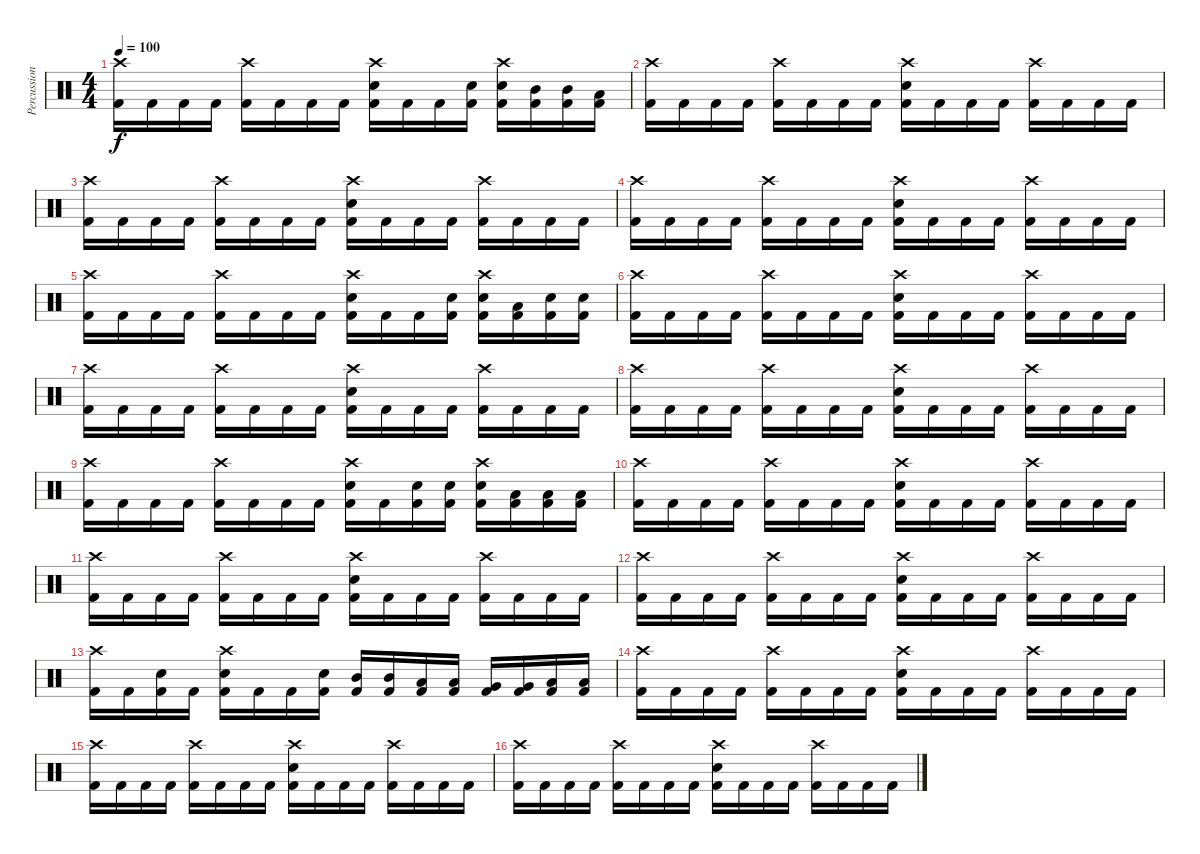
\track ("Percussion" "Percussion") {instrument percussion}
\staff {score}
\articulation defaults
\ts (4 4)
\tempo 100
\clef neutral
\ks c
("Crash high (hit)" "Kick (hit) 2").16{dy f} "Kick (hit) 2".16 "Kick (hit) 2".16 "Kick (hit) 2".16 ("Crash high (hit)" "Kick (hit) 2").16 "Kick (hit) 2".16 "Kick (hit) 2".16 "Kick (hit) 2".16 ("Crash high (hit)" "Electric Snare (hit)" "Kick (hit) 2").16 "Kick (hit) 2".16 "Kick (hit) 2".16 ("Electric Snare (hit)" "Kick (hit) 2").16 ("Crash high (hit)" "Electric Snare (hit)" "Kick (hit) 2").16 ("Mid Tom (hit)" "Kick (hit) 2").16 ("Mid Tom (hit)" "Kick (hit) 2").16 ("Low Tom (hit)" "Kick (hit) 2").16 |
("Crash high (hit)" "Kick (hit) 2").16 "Kick (hit) 2".16 "Kick (hit) 2".16 "Kick (hit) 2".16 ("Crash high (hit)" "Kick (hit) 2").16 "Kick (hit) 2".16 "Kick (hit) 2".16 "Kick (hit) 2".16 ("Crash high (hit)" "Electric Snare (hit)" "Kick (hit) 2").16 "Kick (hit) 2".16 "Kick (hit) 2".16 "Kick (hit) 2".16 ("Crash high (hit)" "Kick (hit) 2").16 "Kick (hit) 2".16 "Kick (hit) 2".16 "Kick (hit) 2".16 |
("Crash high (hit)" "Kick (hit) 2").16 "Kick (hit) 2".16 "Kick (hit) 2".16 "Kick (hit) 2".16 ("Crash high (hit)" "Kick (hit) 2").16 "Kick (hit) 2".16 "Kick (hit) 2".16 "Kick (hit) 2".16 ("Crash high (hit)" "Electric Snare (hit)" "Kick (hit) 2").16 "Kick (hit) 2".16 "Kick (hit) 2".16 "Kick (hit) 2".16 ("Crash high (hit)" "Kick (hit) 2").16 "Kick (hit) 2".16 "Kick (hit) 2".16 "Kick (hit) 2".16 |
("Crash high (hit)" "Kick (hit) 2").16 "Kick (hit) 2".16 "Kick (hit) 2".16 "Kick (hit) 2".16 ("Crash high (hit)" "Kick (hit) 2").16 "Kick (hit) 2".16 "Kick (hit) 2".16 "Kick (hit) 2".16 ("Crash high (hit)" "Electric Snare (hit)" "Kick (hit) 2").16 "Kick (hit) 2".16 "Kick (hit) 2".16 "Kick (hit) 2".16 ("Crash high (hit)" "Kick (hit) 2").16 "Kick (hit) 2".16 "Kick (hit) 2".16 "Kick (hit) 2".16 |
("Crash high (hit)" "Kick (hit) 2").16 "Kick (hit) 2".16 "Kick (hit) 2".16 "Kick (hit) 2".16 ("Crash high (hit)" "Kick (hit) 2").16 "Kick (hit) 2".16 "Kick (hit) 2".16 "Kick (hit) 2".16 ("Crash high (hit)" "Electric Snare (hit)" "Kick (hit) 2").16 "Kick (hit) 2".16 "Kick (hit) 2".16 ("Electric Snare (hit)" "Kick (hit) 2").16 ("Crash high (hit)" "Electric Snare (hit)" "Kick (hit) 2").16 ("Low Tom (hit)" "Kick (hit) 2").16 ("Electric Snare (hit)" "Kick (hit) 2").16 ("Electric Snare (hit)" "Kick (hit) 2").16 |
("Crash high (hit)" "Kick (hit) 2").16 "Kick (hit) 2".16 "Kick (hit) 2".16 "Kick (hit) 2".16 ("Crash high (hit)" "Kick (hit) 2").16 "Kick (hit) 2".16 "Kick (hit) 2".16 "Kick (hit) 2".16 ("Crash high (hit)" "Electric Snare (hit)" "Kick (hit) 2").16 "Kick (hit) 2".16 "Kick (hit) 2".16 "Kick (hit) 2".16 ("Crash high (hit)" "Kick (hit) 2").16 "Kick (hit) 2".16 "Kick (hit) 2".16 "Kick (hit) 2".16 |
("Crash high (hit)" "Kick (hit) 2").16 "Kick (hit) 2".16 "Kick (hit) 2".16 "Kick (hit) 2".16 ("Crash high (hit)" "Kick (hit) 2").16 "Kick (hit) 2".16 "Kick (hit) 2".16 "Kick (hit) 2".16 ("Crash high (hit)" "Electric Snare (hit)" "Kick (hit) 2").16 "Kick (hit) 2".16 "Kick (hit) 2".16 "Kick (hit) 2".16 ("Crash high (hit)" "Kick (hit) 2").16 "Kick (hit) 2".16 "Kick (hit) 2".16 "Kick (hit) 2".16 |
("Crash high (hit)" "Kick (hit) 2").16 "Kick (hit) 2".16 "Kick (hit) 2".16 "Kick (hit) 2".16 ("Crash high (hit)" "Kick (hit) 2").16 "Kick (hit) 2".16 "Kick (hit) 2".16 "Kick (hit) 2".16 ("Crash high (hit)" "Electric Snare (hit)" "Kick (hit) 2").16 "Kick (hit) 2".16 "Kick (hit) 2".16 "Kick (hit) 2".16 ("Crash high (hit)" "Kick (hit) 2").16 "Kick (hit) 2".16 "Kick (hit) 2".16 "Kick (hit) 2".16 |
("Crash high (hit)" "Kick (hit) 2").16 "Kick (hit) 2".16 "Kick (hit) 2".16 "Kick (hit) 2".16 ("Crash high (hit)" "Kick (hit) 2").16 "Kick (hit) 2".16 "Kick (hit) 2".16 "Kick (hit) 2".16 ("Crash high (hit)" "Electric Snare (hit)" "Kick (hit) 2").16 "Kick (hit) 2".16 ("Electric Snare (hit)" "Kick (hit) 2").16 ("Electric Snare (hit)" "Kick (hit) 2").16 ("Crash high (hit)" "Electric Snare (hit)" "Kick (hit) 2").16 ("Low Tom (hit)" "Kick (hit) 2").16 ("Low Tom (hit)" "Kick (hit) 2").16 ("Low Tom (hit)" "Kick (hit) 2").16 |
("Crash high (hit)" "Kick (hit) 2").16 "Kick (hit) 2".16 "Kick (hit) 2".16 "Kick (hit) 2".16 ("Crash high (hit)" "Kick (hit) 2").16 "Kick (hit) 2".16 "Kick (hit) 2".16 "Kick (hit) 2".16 ("Crash high (hit)" "Electric Snare (hit)" "Kick (hit) 2").16 "Kick (hit) 2".16 "Kick (hit) 2".16 "Kick (hit) 2".16 ("Crash high (hit)" "Kick (hit) 2").16 "Kick (hit) 2".16 "Kick (hit) 2".16 "Kick (hit) 2".16 |
("Crash high (hit)" "Kick (hit) 2").16 "Kick (hit) 2".16 "Kick (hit) 2".16 "Kick (hit) 2".16 ("Crash high (hit)" "Kick (hit) 2").16 "Kick (hit) 2".16 "Kick (hit) 2".16 "Kick (hit) 2".16 ("Crash high (hit)" "Electric Snare (hit)" "Kick (hit) 2").16 "Kick (hit) 2".16 "Kick (hit) 2".16 "Kick (hit) 2".16 ("Crash high (hit)" "Kick (hit) 2").16 "Kick (hit) 2".16 "Kick (hit) 2".16 "Kick (hit) 2".16 |
("Crash high (hit)" "Kick (hit) 2").16 "Kick (hit) 2".16 "Kick (hit) 2".16 "Kick (hit) 2".16 ("Crash high (hit)" "Kick (hit) 2").16 "Kick (hit) 2".16 "Kick (hit) 2".16 "Kick (hit) 2".16 ("Crash high (hit)" "Electric Snare (hit)" "Kick (hit) 2").16 "Kick (hit) 2".16 "Kick (hit) 2".16 "Kick (hit) 2".16 ("Crash high (hit)" "Kick (hit) 2").16 "Kick (hit) 2".16 "Kick (hit) 2".16 "Kick (hit) 2".16 |
("Crash high (hit)" "Kick (hit) 2").16 "Kick (hit) 2".16 ("Electric Snare (hit)" "Kick (hit) 2").16 "Kick (hit) 2".16 ("Crash high (hit)" "Electric Snare (hit)" "Kick (hit) 2").16 "Kick (hit) 2".16 "Kick (hit) 2".16 ("Electric Snare (hit)" "Kick (hit) 2").16 ("Mid Tom (hit)" "Kick (hit) 2").16 ("Mid Tom (hit)" "Kick (hit) 2").16 ("Low Tom (hit)" "Kick (hit) 2").16 ("Low Tom (hit)" "Kick (hit) 2").16 ("Very Low Tom (hit)" "Kick (hit) 2").16 ("Very Low Tom (hit)" "Kick (hit) 2").16 ("Low Floor Tom (hit)" "Kick (hit) 2").16 ("Low Floor Tom (hit)" "Kick (hit) 2").16 |
("Crash high (hit)" "Kick (hit) 2").16{volume 11} "Kick (hit) 2".16 "Kick (hit) 2".16 "Kick (hit) 2".16 ("Crash high (hit)" "Kick (hit) 2").16 "Kick (hit) 2".16 "Kick (hit) 2".16 "Kick (hit) 2".16 ("Crash high (hit)" "Electric Snare (hit)" "Kick (hit) 2").16 "Kick (hit) 2".16 "Kick (hit) 2".16 "Kick (hit) 2".16 ("Crash high (hit)" "Kick (hit) 2").16 "Kick (hit) 2".16 "Kick (hit) 2".16 "Kick (hit) 2".16 |
("Crash high (hit)" "Kick (hit) 2").16 "Kick (hit) 2".16 "Kick (hit) 2".16 "Kick (hit) 2".16 ("Crash high (hit)" "Kick (hit) 2").16 "Kick (hit) 2".16 "Kick (hit) 2".16 "Kick (hit) 2".16 ("Crash high (hit)" "Electric Snare (hit)" "Kick (hit) 2").16 "Kick (hit) 2".16 "Kick (hit) 2".16 "Kick (hit) 2".16 ("Crash high (hit)" "Kick (hit) 2").16 "Kick (hit) 2".16 "Kick (hit) 2".16 "Kick (hit) 2".16 |
("Crash high (hit)" "Kick (hit) 2").16 "Kick (hit) 2".16 "Kick (hit) 2".16 "Kick (hit) 2".16 ("Crash high (hit)" "Kick (hit) 2").16 "Kick (hit) 2".16 "Kick (hit) 2".16 "Kick (hit) 2".16 ("Crash high (hit)" "Electric Snare (hit)" "Kick (hit) 2").16 "Kick (hit) 2".16 "Kick (hit) 2".16 "Kick (hit) 2".16 ("Crash high (hit)" "Kick (hit) 2").16 "Kick (hit) 2".16 "Kick (hit) 2".16 "Kick (hit) 2".16
